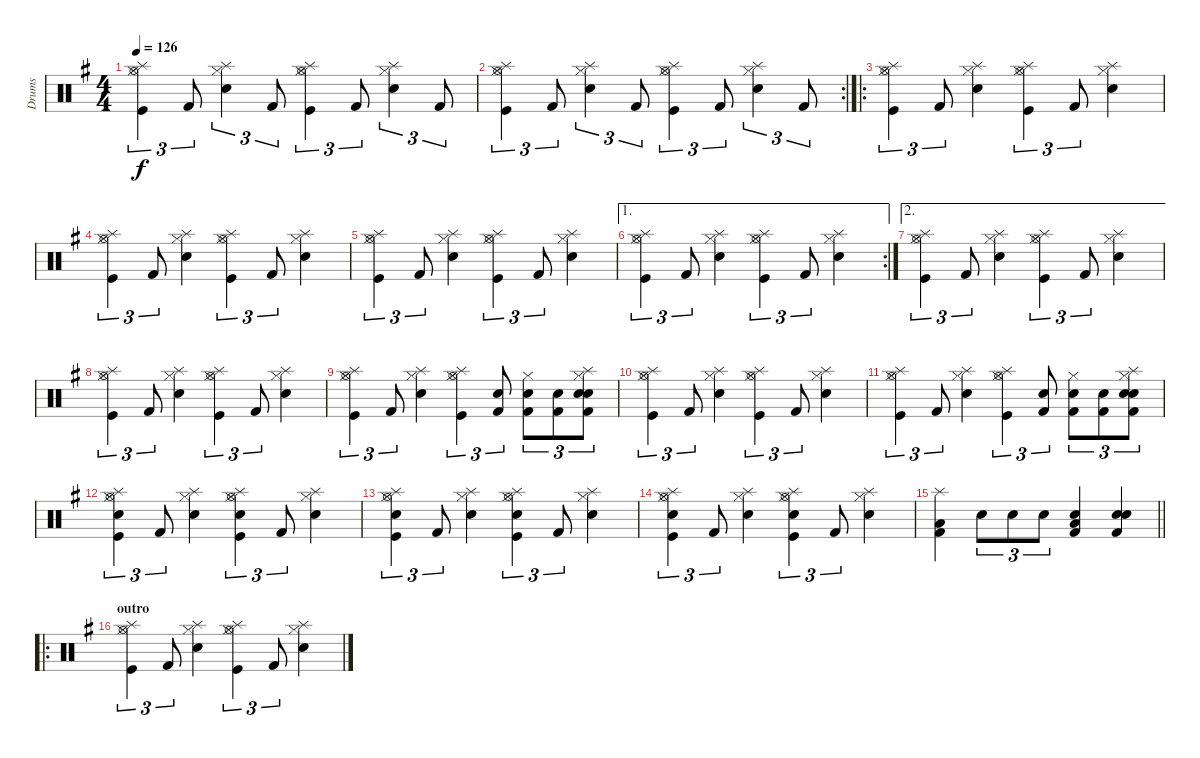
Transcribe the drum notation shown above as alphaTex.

\track ("Drums" "Drums") {instrument percussion}
\staff {score}
\articulation defaults
\ts (4 4)
\tempo 126
\clef neutral
\ks eminor
("Splash (hit)" "Hi-Hat (closed)" "Hi-Hat (open)" "Kick (hit)").4{tu (3 2) dy f} "Kick (hit) 2".8{tu (3 2)} ("Splash (hit)" "Hi-Hat (closed)" "Electric Snare (hit)").4{tu (3 2)} "Kick (hit) 2".8{tu (3 2)} ("Splash (hit)" "Hi-Hat (closed)" "Hi-Hat (open)" "Kick (hit)").4{tu (3 2)} "Kick (hit) 2".8{tu (3 2)} ("Splash (hit)" "Hi-Hat (closed)" "Electric Snare (hit)").4{tu (3 2)} "Kick (hit) 2".8{tu (3 2)} |
\rc 2
("Splash (hit)" "Hi-Hat (closed)" "Hi-Hat (open)" "Kick (hit)").4{tu (3 2)} "Kick (hit) 2".8{tu (3 2)} ("Splash (hit)" "Hi-Hat (closed)" "Electric Snare (hit)").4{tu (3 2)} "Kick (hit) 2".8{tu (3 2)} ("Splash (hit)" "Hi-Hat (closed)" "Hi-Hat (open)" "Kick (hit)").4{tu (3 2)} "Kick (hit) 2".8{tu (3 2)} ("Splash (hit)" "Hi-Hat (closed)" "Electric Snare (hit)").4{tu (3 2)} "Kick (hit) 2".8{tu (3 2)} |
\ro
("Splash (hit)" "Hi-Hat (closed)" "Hi-Hat (open)" "Kick (hit)").4{tu (3 2)} "Kick (hit) 2".8{tu (3 2)} ("Splash (hit)" "Hi-Hat (closed)" "Electric Snare (hit)").4 ("Splash (hit)" "Hi-Hat (closed)" "Hi-Hat (open)" "Kick (hit)").4{tu (3 2)} "Kick (hit) 2".8{tu (3 2)} ("Splash (hit)" "Hi-Hat (closed)" "Electric Snare (hit)").4 |
("Splash (hit)" "Hi-Hat (closed)" "Hi-Hat (open)" "Kick (hit)").4{tu (3 2)} "Kick (hit) 2".8{tu (3 2)} ("Splash (hit)" "Hi-Hat (closed)" "Electric Snare (hit)").4 ("Splash (hit)" "Hi-Hat (closed)" "Hi-Hat (open)" "Kick (hit)").4{tu (3 2)} "Kick (hit) 2".8{tu (3 2)} ("Splash (hit)" "Hi-Hat (closed)" "Electric Snare (hit)").4 |
("Splash (hit)" "Hi-Hat (closed)" "Hi-Hat (open)" "Kick (hit)").4{tu (3 2)} "Kick (hit) 2".8{tu (3 2)} ("Splash (hit)" "Hi-Hat (closed)" "Electric Snare (hit)").4 ("Splash (hit)" "Hi-Hat (closed)" "Hi-Hat (open)" "Kick (hit)").4{tu (3 2)} "Kick (hit) 2".8{tu (3 2)} ("Splash (hit)" "Hi-Hat (closed)" "Electric Snare (hit)").4 |
\ae 1
\rc 2
("Splash (hit)" "Hi-Hat (closed)" "Hi-Hat (open)" "Kick (hit)").4{tu (3 2)} "Kick (hit) 2".8{tu (3 2)} ("Splash (hit)" "Hi-Hat (closed)" "Electric Snare (hit)").4 ("Splash (hit)" "Hi-Hat (closed)" "Hi-Hat (open)" "Kick (hit)").4{tu (3 2)} "Kick (hit) 2".8{tu (3 2)} ("Splash (hit)" "Hi-Hat (closed)" "Electric Snare (hit)").4 |
\ae 2
("Splash (hit)" "Hi-Hat (closed)" "Hi-Hat (open)" "Kick (hit)").4{tu (3 2)} "Kick (hit) 2".8{tu (3 2)} ("Splash (hit)" "Hi-Hat (closed)" "Electric Snare (hit)").4 ("Splash (hit)" "Hi-Hat (closed)" "Hi-Hat (open)" "Kick (hit)").4{tu (3 2)} "Kick (hit) 2".8{tu (3 2)} ("Splash (hit)" "Hi-Hat (closed)" "Electric Snare (hit)").4 |
("Splash (hit)" "Hi-Hat (closed)" "Hi-Hat (open)" "Kick (hit)").4{tu (3 2)} "Kick (hit) 2".8{tu (3 2)} ("Splash (hit)" "Hi-Hat (closed)" "Electric Snare (hit)").4 ("Splash (hit)" "Hi-Hat (closed)" "Hi-Hat (open)" "Kick (hit)").4{tu (3 2)} "Kick (hit) 2".8{tu (3 2)} ("Splash (hit)" "Hi-Hat (closed)" "Electric Snare (hit)").4 |
("Splash (hit)" "Hi-Hat (closed)" "Hi-Hat (open)" "Kick (hit)").4{tu (3 2)} "Kick (hit) 2".8{tu (3 2)} ("Splash (hit)" "Hi-Hat (closed)" "Electric Snare (hit)").4 ("Splash (hit)" "Hi-Hat (closed)" "Hi-Hat (open)" "Kick (hit)").4{tu (3 2)} ("Electric Snare (hit)" "Kick (hit) 2").8{tu (3 2)} ("Hi-Hat (closed)" "Electric Snare (hit)" "Kick (hit) 2").8{tu (3 2)} ("Electric Snare (hit)" "Kick (hit) 2").8{tu (3 2)} ("Splash (hit)" "Hi-Hat (closed)" "Snare (hit) 2" "Electric Snare (hit)" "Kick (hit) 2").8{tu (3 2)} |
("Splash (hit)" "Hi-Hat (closed)" "Hi-Hat (open)" "Kick (hit)").4{tu (3 2)} "Kick (hit) 2".8{tu (3 2)} ("Splash (hit)" "Hi-Hat (closed)" "Electric Snare (hit)").4 ("Splash (hit)" "Hi-Hat (closed)" "Hi-Hat (open)" "Kick (hit)").4{tu (3 2)} "Kick (hit) 2".8{tu (3 2)} ("Splash (hit)" "Hi-Hat (closed)" "Electric Snare (hit)").4 |
("Splash (hit)" "Hi-Hat (closed)" "Hi-Hat (open)" "Kick (hit)").4{tu (3 2)} "Kick (hit) 2".8{tu (3 2)} ("Splash (hit)" "Hi-Hat (closed)" "Electric Snare (hit)").4 ("Splash (hit)" "Hi-Hat (closed)" "Hi-Hat (open)" "Kick (hit)").4{tu (3 2)} ("Electric Snare (hit)" "Kick (hit) 2").8{tu (3 2)} ("Hi-Hat (closed)" "Electric Snare (hit)" "Kick (hit) 2").8{tu (3 2)} ("Electric Snare (hit)" "Kick (hit) 2").8{tu (3 2)} ("Splash (hit)" "Hi-Hat (closed)" "Snare (hit) 2" "Electric Snare (hit)" "Kick (hit) 2").8{tu (3 2)} |
("Splash (hit)" "Hi-Hat (closed)" "Hi-Hat (open)" "Electric Snare (hit)" "Kick (hit)").4{tu (3 2)} "Kick (hit) 2".8{tu (3 2)} ("Splash (hit)" "Hi-Hat (closed)" "Electric Snare (hit)").4 ("Splash (hit)" "Hi-Hat (closed)" "Hi-Hat (open)" "Electric Snare (hit)" "Kick (hit)").4{tu (3 2)} "Kick (hit) 2".8{tu (3 2)} ("Splash (hit)" "Hi-Hat (closed)" "Electric Snare (hit)").4 |
("Splash (hit)" "Hi-Hat (closed)" "Hi-Hat (open)" "Electric Snare (hit)" "Kick (hit)").4{tu (3 2)} "Kick (hit) 2".8{tu (3 2)} ("Splash (hit)" "Hi-Hat (closed)" "Electric Snare (hit)").4 ("Splash (hit)" "Hi-Hat (closed)" "Hi-Hat (open)" "Electric Snare (hit)" "Kick (hit)").4{tu (3 2)} "Kick (hit) 2".8{tu (3 2)} ("Splash (hit)" "Hi-Hat (closed)" "Electric Snare (hit)").4 |
("Splash (hit)" "Hi-Hat (closed)" "Hi-Hat (open)" "Electric Snare (hit)" "Kick (hit)").4{tu (3 2)} "Kick (hit) 2".8{tu (3 2)} ("Splash (hit)" "Hi-Hat (closed)" "Electric Snare (hit)").4 ("Splash (hit)" "Hi-Hat (closed)" "Hi-Hat (open)" "Electric Snare (hit)" "Kick (hit)").4{tu (3 2)} "Kick (hit) 2".8{tu (3 2)} ("Splash (hit)" "Hi-Hat (closed)" "Electric Snare (hit)").4 |
\barLineRight lightlight
("Splash (hit)" "Low Tom (hit)" "Kick (hit) 2").4 "Snare (hit) 2".8{tu (3 2)} "Snare (hit) 2".8{tu (3 2)} "Snare (hit) 2".8{tu (3 2)} ("Snare (hit) 2" "Low Tom (hit)" "Kick (hit) 2").4 ("Snare (hit) 2" "Electric Snare (hit)" "Kick (hit) 2").4 |
\ro
\section ("" "outro")
("Splash (hit)" "Hi-Hat (closed)" "Hi-Hat (open)" "Kick (hit)").4{tu (3 2)} "Kick (hit) 2".8{tu (3 2)} ("Splash (hit)" "Hi-Hat (closed)" "Electric Snare (hit)").4 ("Splash (hit)" "Hi-Hat (closed)" "Hi-Hat (open)" "Kick (hit)").4{tu (3 2)} "Kick (hit) 2".8{tu (3 2)} ("Splash (hit)" "Hi-Hat (closed)" "Electric Snare (hit)").4
